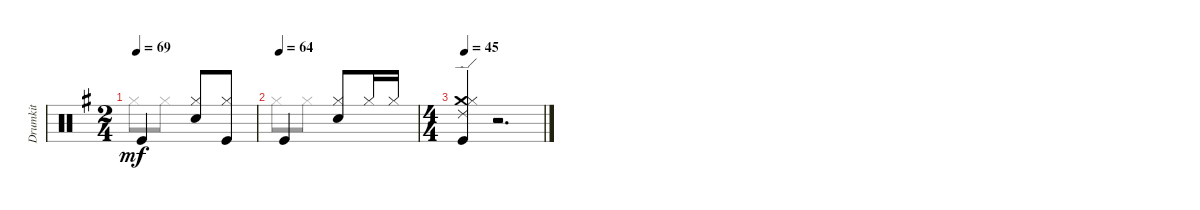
\track ("Drumkit" "Drumkit") {instrument percussion}
\staff {score}
\articulation defaults
\voice
\ts (2 4)
\tempo 69
\clef neutral
\ks eminor "Kick (hit)".4{dy mf}
("Snare (hit) 2" "Hi-Hat (closed)").8 ("Hi-Hat (closed)" "Kick (hit)").8 |
\tempo (64)
"Kick (hit)".4 ("Snare (hit) 2" "Hi-Hat (closed)").8 "Hi-Hat (closed)".16 "Hi-Hat (closed)".16 |
\ts (4 4)
\tempo 45
("Crash medium (hit)" "Hi-Hat (closed)" "Ride (edge) 2" "Kick (hit)").4 r.2{d}
\voice
\clef neutral
\ottava regular
\simile none
\ks eminor "Hi-Hat (closed)".8{dy mf} "Hi-Hat (closed)".8
|
"Hi-Hat (closed)".8 "Hi-Hat (closed)".8 |
